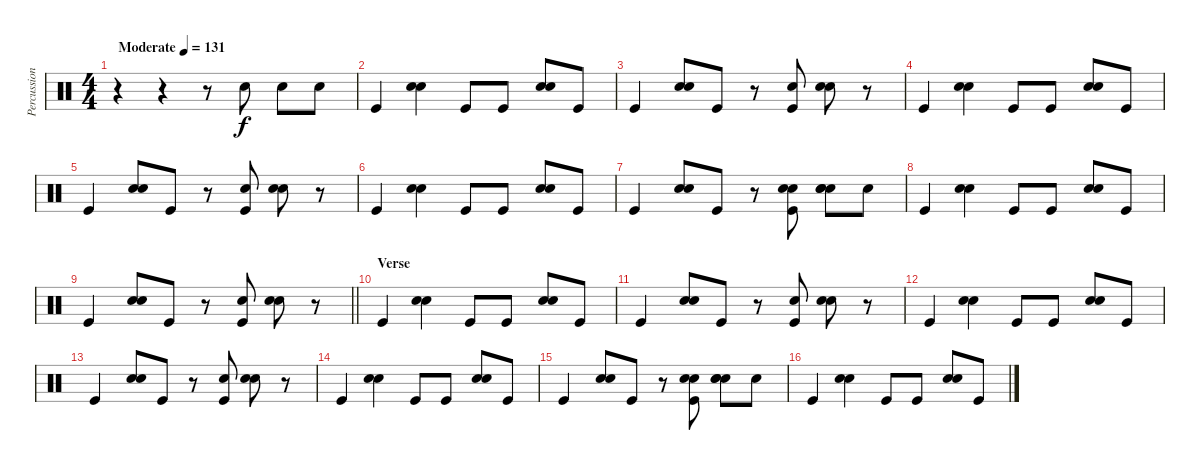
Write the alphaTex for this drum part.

\track ("Percussion" "Percussion") {instrument percussion}
\staff {score}
\articulation defaults
\ts (4 4)
\tempo (131 "Moderate")
\clef neutral
\ks c
r.4{dy f} r.4 r.8 "Hand Clap (hit)".8 "Hand Clap (hit)".8 "Hand Clap (hit)".8 |
"Kick (hit)".4 ("Snare (hit) 2" "Snare (hit) 2").4 "Kick (hit)".8 "Kick (hit)".8 ("Snare (hit) 2" "Snare (hit) 2").8 "Kick (hit)".8 |
"Kick (hit)".4 ("Snare (hit) 2" "Snare (hit) 2").8 "Kick (hit)".8 r.8 ("Snare (hit) 2" "Kick (hit)").8 ("Snare (hit) 2" "Snare (hit) 2").8 r.8 |
"Kick (hit)".4 ("Snare (hit) 2" "Snare (hit) 2").4 "Kick (hit)".8 "Kick (hit)".8 ("Snare (hit) 2" "Snare (hit) 2").8 "Kick (hit)".8 |
"Kick (hit)".4 ("Snare (hit) 2" "Snare (hit) 2").8 "Kick (hit)".8 r.8 ("Snare (hit) 2" "Kick (hit)").8 ("Snare (hit) 2" "Snare (hit) 2").8 r.8 |
"Kick (hit)".4 ("Snare (hit) 2" "Snare (hit) 2").4 "Kick (hit)".8 "Kick (hit)".8 ("Snare (hit) 2" "Snare (hit) 2").8 "Kick (hit)".8 |
"Kick (hit)".4 ("Snare (hit) 2" "Snare (hit) 2").8 "Kick (hit)".8 r.8 ("Hand Clap (hit)" "Snare (hit) 2" "Kick (hit)").8 ("Hand Clap (hit)" "Snare (hit) 2" "Snare (hit) 2").8 "Hand Clap (hit)".8 |
"Kick (hit)".4 ("Snare (hit) 2" "Snare (hit) 2").4 "Kick (hit)".8 "Kick (hit)".8 ("Snare (hit) 2" "Snare (hit) 2").8 "Kick (hit)".8 |
\barLineRight lightlight "Kick (hit)".4
("Snare (hit) 2" "Snare (hit) 2").8 "Kick (hit)".8 r.8 ("Snare (hit) 2" "Kick (hit)").8 ("Snare (hit) 2" "Snare (hit) 2").8 r.8 |
\section ("" "Verse ")
"Kick (hit)".4 ("Snare (hit) 2" "Snare (hit) 2").4 "Kick (hit)".8 "Kick (hit)".8 ("Snare (hit) 2" "Snare (hit) 2").8 "Kick (hit)".8 |
"Kick (hit)".4 ("Snare (hit) 2" "Snare (hit) 2").8 "Kick (hit)".8 r.8 ("Snare (hit) 2" "Kick (hit)").8 ("Snare (hit) 2" "Snare (hit) 2").8 r.8 |
"Kick (hit)".4 ("Snare (hit) 2" "Snare (hit) 2").4 "Kick (hit)".8 "Kick (hit)".8 ("Snare (hit) 2" "Snare (hit) 2").8 "Kick (hit)".8 |
"Kick (hit)".4 ("Snare (hit) 2" "Snare (hit) 2").8 "Kick (hit)".8 r.8 ("Snare (hit) 2" "Kick (hit)").8 ("Snare (hit) 2" "Snare (hit) 2").8 r.8 |
"Kick (hit)".4 ("Snare (hit) 2" "Snare (hit) 2").4 "Kick (hit)".8 "Kick (hit)".8 ("Snare (hit) 2" "Snare (hit) 2").8 "Kick (hit)".8 |
"Kick (hit)".4 ("Snare (hit) 2" "Snare (hit) 2").8 "Kick (hit)".8 r.8 ("Hand Clap (hit)" "Snare (hit) 2" "Kick (hit)").8 ("Hand Clap (hit)" "Snare (hit) 2" "Snare (hit) 2").8 "Hand Clap (hit)".8 |
"Kick (hit)".4 ("Snare (hit) 2" "Snare (hit) 2").4 "Kick (hit)".8 "Kick (hit)".8 ("Snare (hit) 2" "Snare (hit) 2").8 "Kick (hit)".8
